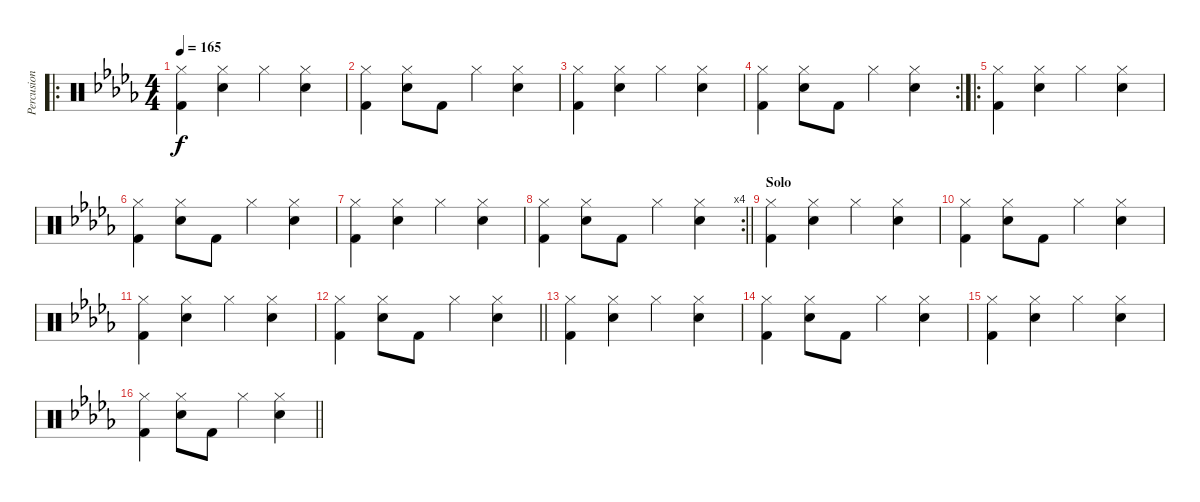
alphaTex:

\track ("Percusion (percussions)" "Percusion ") {instrument percussion}
\staff {score}
\articulation defaults
\ro
\ts (4 4)
\tempo 165
\clef neutral
\ks db
("Hi-Hat (closed)" "Kick (hit) 2").4{dy f} ("Hi-Hat (closed)" "Snare (hit) 2").4 "Hi-Hat (closed)".4 ("Hi-Hat (closed)" "Snare (hit) 2").4 |
("Hi-Hat (closed)" "Kick (hit) 2").4 ("Hi-Hat (closed)" "Snare (hit) 2").8 "Kick (hit) 2".8 "Hi-Hat (closed)".4 ("Hi-Hat (closed)" "Snare (hit) 2").4 |
("Hi-Hat (closed)" "Kick (hit) 2").4 ("Hi-Hat (closed)" "Snare (hit) 2").4 "Hi-Hat (closed)".4 ("Hi-Hat (closed)" "Snare (hit) 2").4 |
\rc 2
("Hi-Hat (closed)" "Kick (hit) 2").4 ("Hi-Hat (closed)" "Snare (hit) 2").8 "Kick (hit) 2".8 "Hi-Hat (closed)".4 ("Hi-Hat (closed)" "Snare (hit) 2").4 |
\ro
("Hi-Hat (closed)" "Kick (hit) 2").4 ("Hi-Hat (closed)" "Snare (hit) 2").4 "Hi-Hat (closed)".4 ("Hi-Hat (closed)" "Snare (hit) 2").4 |
("Hi-Hat (closed)" "Kick (hit) 2").4 ("Hi-Hat (closed)" "Snare (hit) 2").8 "Kick (hit) 2".8 "Hi-Hat (closed)".4 ("Hi-Hat (closed)" "Snare (hit) 2").4 |
("Hi-Hat (closed)" "Kick (hit) 2").4 ("Hi-Hat (closed)" "Snare (hit) 2").4 "Hi-Hat (closed)".4 ("Hi-Hat (closed)" "Snare (hit) 2").4 |
\rc 4
\barLineRight lightlight
("Hi-Hat (closed)" "Kick (hit) 2").4 ("Hi-Hat (closed)" "Snare (hit) 2").8 "Kick (hit) 2".8 "Hi-Hat (closed)".4 ("Hi-Hat (closed)" "Snare (hit) 2").4 |
\section ("" "Solo")
("Hi-Hat (closed)" "Kick (hit) 2").4 ("Hi-Hat (closed)" "Snare (hit) 2").4 "Hi-Hat (closed)".4 ("Hi-Hat (closed)" "Snare (hit) 2").4 |
("Hi-Hat (closed)" "Kick (hit) 2").4 ("Hi-Hat (closed)" "Snare (hit) 2").8 "Kick (hit) 2".8 "Hi-Hat (closed)".4 ("Hi-Hat (closed)" "Snare (hit) 2").4 |
("Hi-Hat (closed)" "Kick (hit) 2").4 ("Hi-Hat (closed)" "Snare (hit) 2").4 "Hi-Hat (closed)".4 ("Hi-Hat (closed)" "Snare (hit) 2").4 |
\barLineRight lightlight
("Hi-Hat (closed)" "Kick (hit) 2").4 ("Hi-Hat (closed)" "Snare (hit) 2").8 "Kick (hit) 2".8 "Hi-Hat (closed)".4 ("Hi-Hat (closed)" "Snare (hit) 2").4 |
("Hi-Hat (closed)" "Kick (hit) 2").4 ("Hi-Hat (closed)" "Snare (hit) 2").4 "Hi-Hat (closed)".4 ("Hi-Hat (closed)" "Snare (hit) 2").4 |
("Hi-Hat (closed)" "Kick (hit) 2").4 ("Hi-Hat (closed)" "Snare (hit) 2").8 "Kick (hit) 2".8 "Hi-Hat (closed)".4 ("Hi-Hat (closed)" "Snare (hit) 2").4 |
("Hi-Hat (closed)" "Kick (hit) 2").4 ("Hi-Hat (closed)" "Snare (hit) 2").4 "Hi-Hat (closed)".4 ("Hi-Hat (closed)" "Snare (hit) 2").4 |
\barLineRight lightlight
("Hi-Hat (closed)" "Kick (hit) 2").4 ("Hi-Hat (closed)" "Snare (hit) 2").8 "Kick (hit) 2".8 "Hi-Hat (closed)".4 ("Hi-Hat (closed)" "Snare (hit) 2").4
